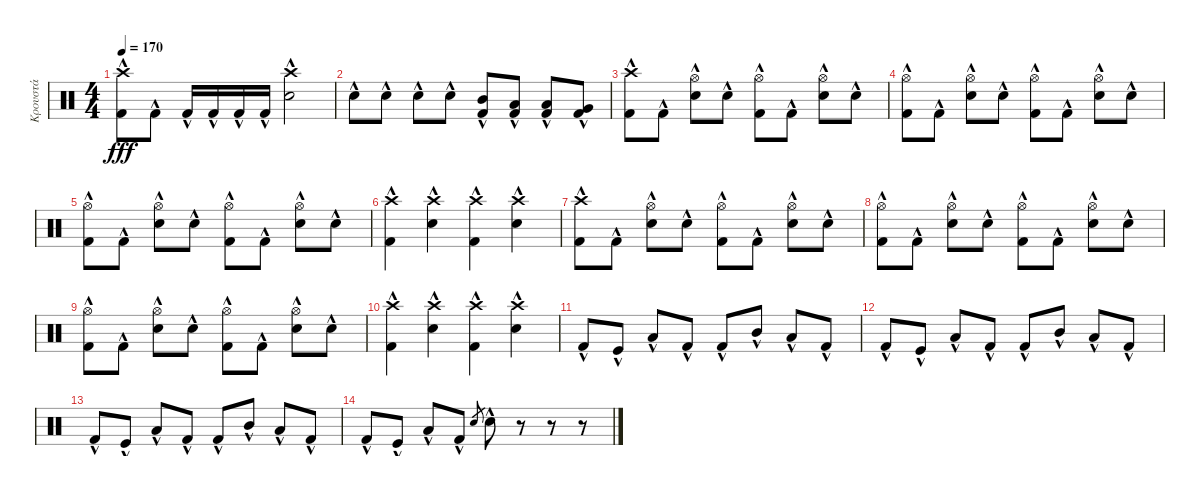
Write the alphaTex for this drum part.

\track ("Κρουστά" "Κρουστά") {instrument percussion}
\staff {score}
\articulation defaults
\ts (4 4)
\tempo 170
\clef neutral
\ks c
("Kick (hit) 2"{hac} "Crash high (hit)").8{dy fff} "Kick (hit) 2"{hac}.8 "Kick (hit) 2"{hac}.16 "Kick (hit) 2"{hac}.16 "Kick (hit) 2"{hac}.16 "Kick (hit) 2"{hac}.16 ("Electric Snare (hit)"{hac} "Crash high (hit)").2 |
"Electric Snare (hit)"{hac}.8 "Electric Snare (hit)"{hac}.8 "Electric Snare (hit)"{hac}.8 "Electric Snare (hit)"{hac}.8 ("Mid Tom (hit)" "Kick (hit) 2"{hac}).8 ("Low Tom (hit)" "Kick (hit) 2"{hac}).8 ("Low Tom (hit)" "Kick (hit) 2"{hac}).8 ("Very Low Tom (hit)" "Kick (hit) 2"{hac}).8 |
("Crash high (hit)" "Kick (hit) 2"{hac}).8 "Kick (hit) 2"{hac}.8 ("Hi-Hat (open)" "Electric Snare (hit)"{hac}).8 "Electric Snare (hit)"{hac}.8 ("Hi-Hat (open)" "Kick (hit) 2"{hac}).8 "Kick (hit) 2"{hac}.8 ("Hi-Hat (open)" "Electric Snare (hit)"{hac}).8 "Electric Snare (hit)"{hac}.8 |
("Hi-Hat (open)" "Kick (hit) 2"{hac}).8 "Kick (hit) 2"{hac}.8 ("Hi-Hat (open)" "Electric Snare (hit)"{hac}).8 "Electric Snare (hit)"{hac}.8 ("Hi-Hat (open)" "Kick (hit) 2"{hac}).8 "Kick (hit) 2"{hac}.8 ("Hi-Hat (open)" "Electric Snare (hit)"{hac}).8 "Electric Snare (hit)"{hac}.8 |
("Hi-Hat (open)" "Kick (hit) 2"{hac}).8 "Kick (hit) 2"{hac}.8 ("Hi-Hat (open)" "Electric Snare (hit)"{hac}).8 "Electric Snare (hit)"{hac}.8 ("Hi-Hat (open)" "Kick (hit) 2"{hac}).8 "Kick (hit) 2"{hac}.8 ("Hi-Hat (open)" "Electric Snare (hit)"{hac}).8 "Electric Snare (hit)"{hac}.8 |
("Crash high (hit)" "Kick (hit) 2"{hac}).4 ("Crash high (hit)" "Electric Snare (hit)"{hac}).4 ("Crash high (hit)" "Kick (hit) 2"{hac}).4 ("Crash high (hit)" "Electric Snare (hit)"{hac}).4 |
("Crash high (hit)" "Kick (hit) 2"{hac}).8 "Kick (hit) 2"{hac}.8 ("Hi-Hat (open)" "Electric Snare (hit)"{hac}).8 "Electric Snare (hit)"{hac}.8 ("Hi-Hat (open)" "Kick (hit) 2"{hac}).8 "Kick (hit) 2"{hac}.8 ("Hi-Hat (open)" "Electric Snare (hit)"{hac}).8 "Electric Snare (hit)"{hac}.8 |
("Hi-Hat (open)" "Kick (hit) 2"{hac}).8 "Kick (hit) 2"{hac}.8 ("Hi-Hat (open)" "Electric Snare (hit)"{hac}).8 "Electric Snare (hit)"{hac}.8 ("Hi-Hat (open)" "Kick (hit) 2"{hac}).8 "Kick (hit) 2"{hac}.8 ("Hi-Hat (open)" "Electric Snare (hit)"{hac}).8 "Electric Snare (hit)"{hac}.8 |
("Hi-Hat (open)" "Kick (hit) 2"{hac}).8 "Kick (hit) 2"{hac}.8 ("Hi-Hat (open)" "Electric Snare (hit)"{hac}).8 "Electric Snare (hit)"{hac}.8 ("Hi-Hat (open)" "Kick (hit) 2"{hac}).8 "Kick (hit) 2"{hac}.8 ("Hi-Hat (open)" "Electric Snare (hit)"{hac}).8 "Electric Snare (hit)"{hac}.8 |
("Crash high (hit)" "Kick (hit) 2"{hac}).4 ("Crash high (hit)" "Electric Snare (hit)"{hac}).4 ("Crash high (hit)" "Kick (hit) 2"{hac}).4 ("Crash high (hit)" "Electric Snare (hit)"{hac}).4 |
"Kick (hit) 2"{hac}.8 "Kick (hit)"{hac}.8 "Low Tom (hit)"{hac}.8 "Kick (hit) 2"{hac}.8 "Kick (hit) 2"{hac}.8 "Mid Tom (hit)"{hac}.8 "Low Tom (hit)"{hac}.8 "Kick (hit) 2"{hac}.8 |
"Kick (hit) 2"{hac}.8 "Kick (hit)"{hac}.8 "Low Tom (hit)"{hac}.8 "Kick (hit) 2"{hac}.8 "Kick (hit) 2"{hac}.8 "Mid Tom (hit)"{hac}.8 "Low Tom (hit)"{hac}.8 "Kick (hit) 2"{hac}.8 |
"Kick (hit) 2"{hac}.8 "Kick (hit)"{hac}.8 "Low Tom (hit)"{hac}.8 "Kick (hit) 2"{hac}.8 "Kick (hit) 2"{hac}.8 "Mid Tom (hit)"{hac}.8 "Low Tom (hit)"{hac}.8 "Kick (hit) 2"{hac}.8 |
"Kick (hit) 2"{hac}.8 "Kick (hit)"{hac}.8 "Low Tom (hit)"{hac}.8 "Kick (hit) 2"{hac}.8 "Electric Snare (hit)".8{gr} "Electric Snare (hit)"{hac}.8 r.8 r.8 r.8
